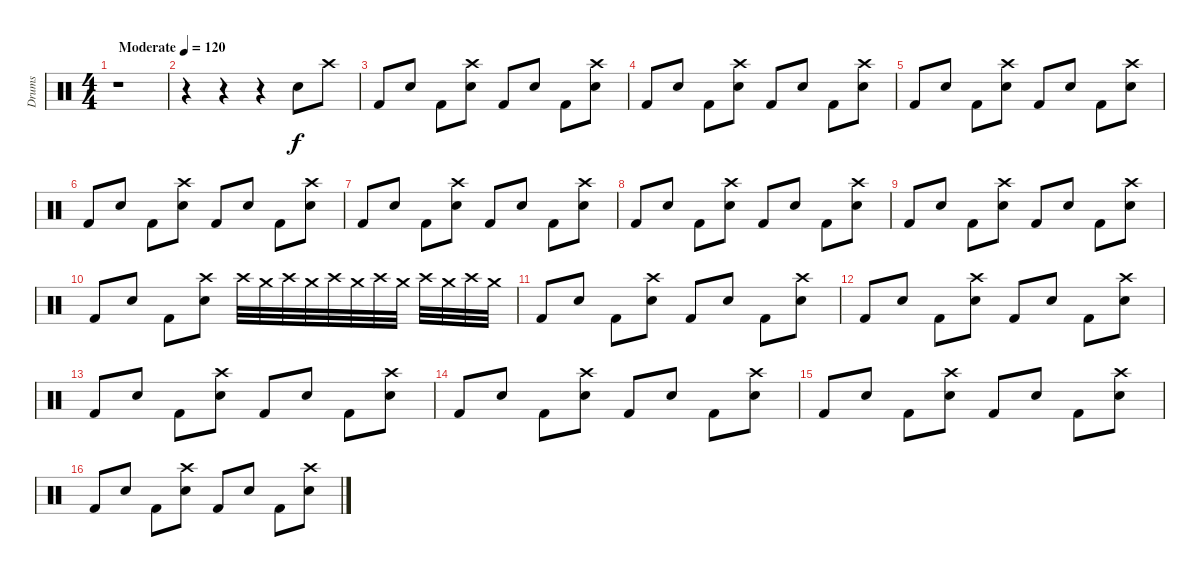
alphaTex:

\track ("Drums" "Drums") {instrument percussion}
\staff {score}
\articulation defaults
\ts (4 4)
\tempo (120 "Moderate")
\clef neutral
\ks c
r.1{dy f} |
r.4 r.4 r.4 "Snare (hit) 2".8 "Crash high (hit)".8 |
"Kick (hit) 2".8 "Snare (hit) 2".8 "Kick (hit) 2".8 ("Snare (hit) 2" "Crash high (hit)").8 "Kick (hit) 2".8 "Snare (hit) 2".8 "Kick (hit) 2".8 ("Snare (hit) 2" "Crash high (hit)").8 |
"Kick (hit) 2".8 "Snare (hit) 2".8 "Kick (hit) 2".8 ("Snare (hit) 2" "Crash high (hit)").8 "Kick (hit) 2".8 "Snare (hit) 2".8 "Kick (hit) 2".8 ("Snare (hit) 2" "Crash high (hit)").8 |
"Kick (hit) 2".8 "Snare (hit) 2".8 "Kick (hit) 2".8 ("Snare (hit) 2" "Crash high (hit)").8 "Kick (hit) 2".8 "Snare (hit) 2".8 "Kick (hit) 2".8 ("Snare (hit) 2" "Crash high (hit)").8 |
"Kick (hit) 2".8 "Snare (hit) 2".8 "Kick (hit) 2".8 ("Snare (hit) 2" "Crash high (hit)").8 "Kick (hit) 2".8 "Snare (hit) 2".8 "Kick (hit) 2".8 ("Snare (hit) 2" "Crash high (hit)").8 |
"Kick (hit) 2".8 "Snare (hit) 2".8 "Kick (hit) 2".8 ("Snare (hit) 2" "Crash high (hit)").8 "Kick (hit) 2".8 "Snare (hit) 2".8 "Kick (hit) 2".8 ("Snare (hit) 2" "Crash high (hit)").8 |
"Kick (hit) 2".8 "Snare (hit) 2".8 "Kick (hit) 2".8 ("Snare (hit) 2" "Crash high (hit)").8 "Kick (hit) 2".8 "Snare (hit) 2".8 "Kick (hit) 2".8 ("Snare (hit) 2" "Crash high (hit)").8 |
"Kick (hit) 2".8 "Snare (hit) 2".8 "Kick (hit) 2".8 ("Snare (hit) 2" "Crash high (hit)").8 "Kick (hit) 2".8 "Snare (hit) 2".8 "Kick (hit) 2".8 ("Snare (hit) 2" "Crash high (hit)").8 |
"Kick (hit) 2".8 "Snare (hit) 2".8 "Kick (hit) 2".8 ("Snare (hit) 2" "Crash high (hit)").8 "Crash high (hit)".32 "Crash medium (hit)".32 "Crash high (hit)".32 "Crash medium (hit)".32 "Crash high (hit)".32 "Crash medium (hit)".32 "Crash high (hit)".32 "Crash medium (hit)".32 "Crash high (hit)".32 "Crash medium (hit)".32 "Crash high (hit)".32 "Crash medium (hit)".32 |
"Kick (hit) 2".8 "Snare (hit) 2".8 "Kick (hit) 2".8 ("Snare (hit) 2" "Crash high (hit)").8 "Kick (hit) 2".8 "Snare (hit) 2".8 "Kick (hit) 2".8 ("Snare (hit) 2" "Crash high (hit)").8 |
"Kick (hit) 2".8 "Snare (hit) 2".8 "Kick (hit) 2".8 ("Snare (hit) 2" "Crash high (hit)").8 "Kick (hit) 2".8 "Snare (hit) 2".8 "Kick (hit) 2".8 ("Snare (hit) 2" "Crash high (hit)").8 |
"Kick (hit) 2".8 "Snare (hit) 2".8 "Kick (hit) 2".8 ("Snare (hit) 2" "Crash high (hit)").8 "Kick (hit) 2".8 "Snare (hit) 2".8 "Kick (hit) 2".8 ("Snare (hit) 2" "Crash high (hit)").8 |
"Kick (hit) 2".8 "Snare (hit) 2".8 "Kick (hit) 2".8 ("Snare (hit) 2" "Crash high (hit)").8 "Kick (hit) 2".8 "Snare (hit) 2".8 "Kick (hit) 2".8 ("Snare (hit) 2" "Crash high (hit)").8 |
"Kick (hit) 2".8 "Snare (hit) 2".8 "Kick (hit) 2".8 ("Snare (hit) 2" "Crash high (hit)").8 "Kick (hit) 2".8 "Snare (hit) 2".8 "Kick (hit) 2".8 ("Snare (hit) 2" "Crash high (hit)").8 |
"Kick (hit) 2".8 "Snare (hit) 2".8 "Kick (hit) 2".8 ("Snare (hit) 2" "Crash high (hit)").8 "Kick (hit) 2".8 "Snare (hit) 2".8 "Kick (hit) 2".8 ("Snare (hit) 2" "Crash high (hit)").8
